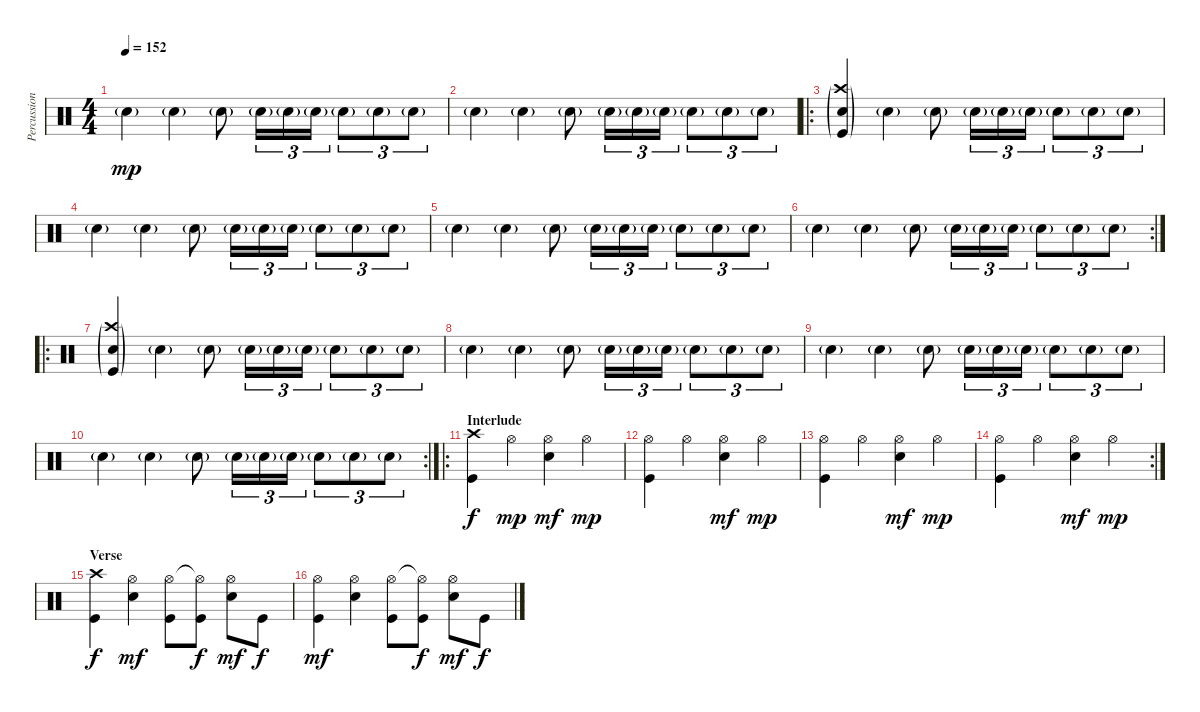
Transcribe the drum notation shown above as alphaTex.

\track ("Percussion" "Percussion") {instrument percussion}
\staff {score}
\articulation defaults
\ts (4 4)
\tempo 152
\clef neutral
\ks c "Snare (hit) 2"{g}.4{dy mp} "Snare (hit) 2"{g}.4 "Snare (hit) 2"{g}.8 "Snare (hit) 2"{g}.16{tu (3 2)} "Snare (hit) 2"{g}.16{tu (3 2)} "Snare (hit) 2"{g}.16{tu (3 2)} "Snare (hit) 2"{g}.8{tu (3 2)} "Snare (hit) 2"{g}.8{tu (3 2)} "Snare (hit) 2"{g}.8{tu (3 2)}
|
"Snare (hit) 2"{g}.4 "Snare (hit) 2"{g}.4 "Snare (hit) 2"{g}.8 "Snare (hit) 2"{g}.16{tu (3 2)} "Snare (hit) 2"{g}.16{tu (3 2)} "Snare (hit) 2"{g}.16{tu (3 2)} "Snare (hit) 2"{g}.8{tu (3 2)} "Snare (hit) 2"{g}.8{tu (3 2)} "Snare (hit) 2"{g}.8{tu (3 2)} |
\ro
("Crash high (hit)"{g} "Snare (hit) 2"{g} "Kick (hit)"{g}).4 "Snare (hit) 2"{g}.4 "Snare (hit) 2"{g}.8 "Snare (hit) 2"{g}.16{tu (3 2)} "Snare (hit) 2"{g}.16{tu (3 2)} "Snare (hit) 2"{g}.16{tu (3 2)} "Snare (hit) 2"{g}.8{tu (3 2)} "Snare (hit) 2"{g}.8{tu (3 2)} "Snare (hit) 2"{g}.8{tu (3 2)} |
"Snare (hit) 2"{g}.4 "Snare (hit) 2"{g}.4 "Snare (hit) 2"{g}.8 "Snare (hit) 2"{g}.16{tu (3 2)} "Snare (hit) 2"{g}.16{tu (3 2)} "Snare (hit) 2"{g}.16{tu (3 2)} "Snare (hit) 2"{g}.8{tu (3 2)} "Snare (hit) 2"{g}.8{tu (3 2)} "Snare (hit) 2"{g}.8{tu (3 2)} |
"Snare (hit) 2"{g}.4 "Snare (hit) 2"{g}.4 "Snare (hit) 2"{g}.8 "Snare (hit) 2"{g}.16{tu (3 2)} "Snare (hit) 2"{g}.16{tu (3 2)} "Snare (hit) 2"{g}.16{tu (3 2)} "Snare (hit) 2"{g}.8{tu (3 2)} "Snare (hit) 2"{g}.8{tu (3 2)} "Snare (hit) 2"{g}.8{tu (3 2)} |
\rc 2 "Snare (hit) 2"{g}.4 "Snare (hit) 2"{g}.4 "Snare (hit) 2"{g}.8 "Snare (hit) 2"{g}.16{tu (3 2)} "Snare (hit) 2"{g}.16{tu (3 2)} "Snare (hit) 2"{g}.16{tu (3 2)} "Snare (hit) 2"{g}.8{tu (3 2)} "Snare (hit) 2"{g}.8{tu (3 2)} "Snare (hit) 2"{g}.8{tu (3 2)}
|
\ro
("Crash high (hit)"{g} "Snare (hit) 2"{g} "Kick (hit)"{g}).4 "Snare (hit) 2"{g}.4 "Snare (hit) 2"{g}.8 "Snare (hit) 2"{g}.16{tu (3 2)} "Snare (hit) 2"{g}.16{tu (3 2)} "Snare (hit) 2"{g}.16{tu (3 2)} "Snare (hit) 2"{g}.8{tu (3 2)} "Snare (hit) 2"{g}.8{tu (3 2)} "Snare (hit) 2"{g}.8{tu (3 2)} |
"Snare (hit) 2"{g}.4 "Snare (hit) 2"{g}.4 "Snare (hit) 2"{g}.8 "Snare (hit) 2"{g}.16{tu (3 2)} "Snare (hit) 2"{g}.16{tu (3 2)} "Snare (hit) 2"{g}.16{tu (3 2)} "Snare (hit) 2"{g}.8{tu (3 2)} "Snare (hit) 2"{g}.8{tu (3 2)} "Snare (hit) 2"{g}.8{tu (3 2)} |
"Snare (hit) 2"{g}.4 "Snare (hit) 2"{g}.4 "Snare (hit) 2"{g}.8 "Snare (hit) 2"{g}.16{tu (3 2)} "Snare (hit) 2"{g}.16{tu (3 2)} "Snare (hit) 2"{g}.16{tu (3 2)} "Snare (hit) 2"{g}.8{tu (3 2)} "Snare (hit) 2"{g}.8{tu (3 2)} "Snare (hit) 2"{g}.8{tu (3 2)} |
\rc 2 "Snare (hit) 2"{g}.4 "Snare (hit) 2"{g}.4 "Snare (hit) 2"{g}.8 "Snare (hit) 2"{g}.16{tu (3 2)} "Snare (hit) 2"{g}.16{tu (3 2)} "Snare (hit) 2"{g}.16{tu (3 2)} "Snare (hit) 2"{g}.8{tu (3 2)} "Snare (hit) 2"{g}.8{tu (3 2)} "Snare (hit) 2"{g}.8{tu (3 2)}
|
\ro
\section ("" "Interlude")
("Crash high (hit)" "Kick (hit)").4{dy f} "Hi-Hat (open)".4{dy mp} ("Hi-Hat (open)" "Snare (hit) 2").4{dy mf} "Hi-Hat (open)".4{dy mp} |
("Hi-Hat (open)" "Kick (hit)").4 "Hi-Hat (open)".4 ("Hi-Hat (open)" "Snare (hit) 2").4{dy mf} "Hi-Hat (open)".4{dy mp} |
("Hi-Hat (open)" "Kick (hit)").4 "Hi-Hat (open)".4 ("Hi-Hat (open)" "Snare (hit) 2").4{dy mf} "Hi-Hat (open)".4{dy mp} |
\rc 2
("Hi-Hat (open)" "Kick (hit)").4 "Hi-Hat (open)".4 ("Hi-Hat (open)" "Snare (hit) 2").4{dy mf} "Hi-Hat (open)".4{dy mp} |
\section ("" "Verse")
("Crash high (hit)" "Kick (hit)").4{dy f} ("Hi-Hat (open)" "Snare (hit) 2").4{dy mf} ("Hi-Hat (open)" "Kick (hit)").8 ("Hi-Hat (open)"{t} "Kick (hit)").8{dy f} ("Hi-Hat (open)" "Snare (hit) 2").8{dy mf} "Kick (hit)".8{dy f} |
("Hi-Hat (open)" "Kick (hit)").4{dy mf} ("Hi-Hat (open)" "Snare (hit) 2").4 ("Hi-Hat (open)" "Kick (hit)").8 ("Hi-Hat (open)"{t} "Kick (hit)").8{dy f} ("Hi-Hat (open)" "Snare (hit) 2").8{dy mf} "Kick (hit)".8{dy f}
